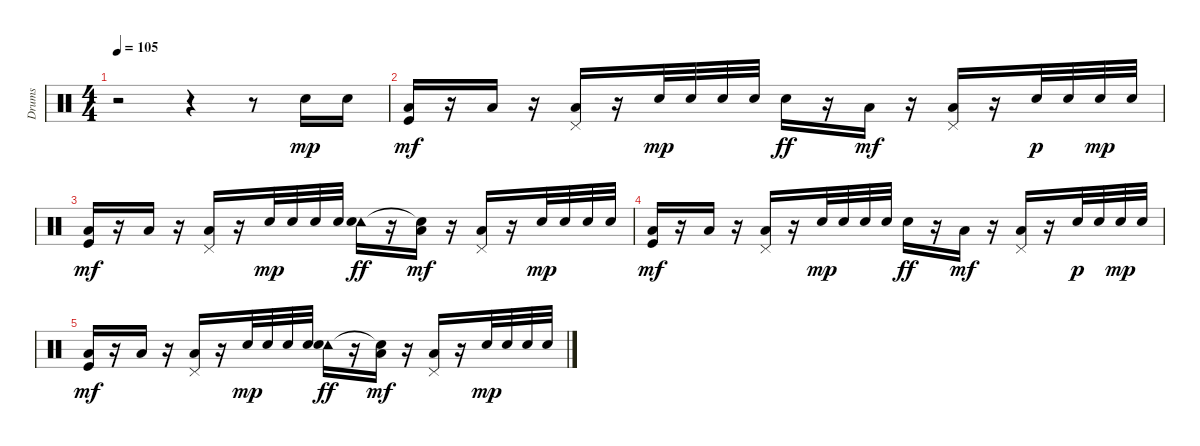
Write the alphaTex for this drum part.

\track ("Drums" "Drums") {instrument percussion}
\staff {score}
\articulation defaults
\ts (4 4)
\tempo 105
\clef neutral
\ks c
r.2{dy f volume 10} r.4 r.8 "Snare (hit) 2".16{dy mp} "Snare (hit) 2".16 |
("Low Tom (hit)" "Kick (hit)").16{dy mf volume 5} r.16 "Low Tom (hit)".16 r.16 ("Pedal Hi-Hat (hit)" "Low Tom (hit)").16 r.16 "Snare (hit) 2".32{dy mp} "Snare (hit) 2".32 "Snare (hit) 2".32 "Snare (hit) 2".32 "Snare (hit) 2".16{dy ff} r.16 "Low Tom (hit)".16{dy mf} r.16 ("Pedal Hi-Hat (hit)" "Low Tom (hit)").16 r.16 "Snare (hit) 2".32{dy p} "Snare (hit) 2".32 "Snare (hit) 2".32{dy mp} "Snare (hit) 2".32 |
("Low Tom (hit)" "Kick (hit)").16{dy mf} r.16 "Low Tom (hit)".16 r.16 ("Pedal Hi-Hat (hit)" "Low Tom (hit)").16 r.16 "Snare (hit) 2".32{dy mp} "Snare (hit) 2".32 "Snare (hit) 2".32 "Snare (hit) 2".32 ("Tambourine (hit)" "Snare (hit) 2").16{dy ff} r.16 ("Snare (hit)"{t} "Low Tom (hit)").16{dy mf} r.16 ("Pedal Hi-Hat (hit)" "Low Tom (hit)").16 r.16 "Snare (hit) 2".32{dy mp} "Snare (hit) 2".32 "Snare (hit) 2".32 "Snare (hit) 2".32 |
("Low Tom (hit)" "Kick (hit)").16{dy mf} r.16 "Low Tom (hit)".16 r.16 ("Pedal Hi-Hat (hit)" "Low Tom (hit)").16 r.16 "Snare (hit) 2".32{dy mp} "Snare (hit) 2".32 "Snare (hit) 2".32 "Snare (hit) 2".32 "Snare (hit) 2".16{dy ff} r.16 "Low Tom (hit)".16{dy mf} r.16 ("Pedal Hi-Hat (hit)" "Low Tom (hit)").16 r.16 "Snare (hit) 2".32{dy p} "Snare (hit) 2".32 "Snare (hit) 2".32{dy mp} "Snare (hit) 2".32 |
("Low Tom (hit)" "Kick (hit)").16{dy mf} r.16 "Low Tom (hit)".16 r.16 ("Pedal Hi-Hat (hit)" "Low Tom (hit)").16 r.16 "Snare (hit) 2".32{dy mp} "Snare (hit) 2".32 "Snare (hit) 2".32 "Snare (hit) 2".32 ("Tambourine (hit)" "Snare (hit) 2").16{dy ff} r.16 ("Snare (hit)"{t} "Low Tom (hit)").16{dy mf} r.16 ("Pedal Hi-Hat (hit)" "Low Tom (hit)").16 r.16 "Snare (hit) 2".32{dy mp} "Snare (hit) 2".32 "Snare (hit) 2".32 "Snare (hit) 2".32
